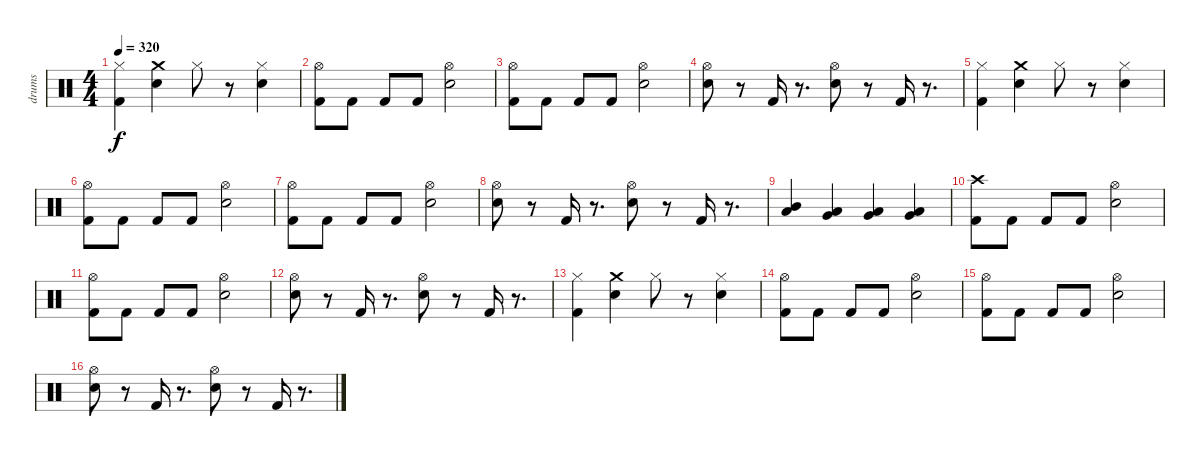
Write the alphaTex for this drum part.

\track ("drums" "drums") {instrument percussion}
\staff {score}
\articulation defaults
\ts (4 4)
\tempo 320
\clef neutral
\ks c
("Hi-Hat (closed)" "Kick (hit) 2").4{dy f} ("Snare (hit) 2" "Crash medium (hit)").4 "Hi-Hat (closed)".8 r.8 ("Hi-Hat (closed)" "Snare (hit) 2").4 |
("Hi-Hat (open)" "Kick (hit) 2").8 "Kick (hit) 2".8 "Kick (hit) 2".8 "Kick (hit) 2".8 ("Hi-Hat (open)" "Snare (hit) 2").2 |
("Hi-Hat (open)" "Kick (hit) 2").8 "Kick (hit) 2".8 "Kick (hit) 2".8 "Kick (hit) 2".8 ("Hi-Hat (open)" "Snare (hit) 2").2 |
("Hi-Hat (open)" "Snare (hit) 2").8 r.8 "Kick (hit) 2".16 r.8{d} ("Hi-Hat (open)" "Snare (hit) 2").8 r.8 "Kick (hit) 2".16 r.8{d} |
("Hi-Hat (closed)" "Kick (hit) 2").4 ("Snare (hit) 2" "Crash medium (hit)").4 "Hi-Hat (closed)".8 r.8 ("Hi-Hat (closed)" "Snare (hit) 2").4 |
("Hi-Hat (open)" "Kick (hit) 2").8 "Kick (hit) 2".8 "Kick (hit) 2".8 "Kick (hit) 2".8 ("Hi-Hat (open)" "Snare (hit) 2").2 |
("Hi-Hat (open)" "Kick (hit) 2").8 "Kick (hit) 2".8 "Kick (hit) 2".8 "Kick (hit) 2".8 ("Hi-Hat (open)" "Snare (hit) 2").2 |
("Hi-Hat (open)" "Snare (hit) 2").8 r.8 "Kick (hit) 2".16 r.8{d} ("Hi-Hat (open)" "Snare (hit) 2").8 r.8 "Kick (hit) 2".16 r.8{d} |
("Mid Tom (hit)" "Low Tom (hit)").4 ("Low Tom (hit)" "Very Low Tom (hit)").4 ("Very Low Tom (hit)" "Low Floor Tom (hit)").4 ("Very Low Tom (hit)" "Low Floor Tom (hit)").4 |
("Crash high (hit)" "Kick (hit) 2").8 "Kick (hit) 2".8 "Kick (hit) 2".8 "Kick (hit) 2".8 ("Hi-Hat (open)" "Snare (hit) 2").2 |
("Hi-Hat (open)" "Kick (hit) 2").8 "Kick (hit) 2".8 "Kick (hit) 2".8 "Kick (hit) 2".8 ("Hi-Hat (open)" "Snare (hit) 2").2 |
("Hi-Hat (open)" "Snare (hit) 2").8 r.8 "Kick (hit) 2".16 r.8{d} ("Hi-Hat (open)" "Snare (hit) 2").8 r.8 "Kick (hit) 2".16 r.8{d} |
("Hi-Hat (closed)" "Kick (hit) 2").4 ("Snare (hit) 2" "Crash medium (hit)").4 "Hi-Hat (closed)".8 r.8 ("Hi-Hat (closed)" "Snare (hit) 2").4 |
("Hi-Hat (open)" "Kick (hit) 2").8 "Kick (hit) 2".8 "Kick (hit) 2".8 "Kick (hit) 2".8 ("Hi-Hat (open)" "Snare (hit) 2").2 |
("Hi-Hat (open)" "Kick (hit) 2").8 "Kick (hit) 2".8 "Kick (hit) 2".8 "Kick (hit) 2".8 ("Hi-Hat (open)" "Snare (hit) 2").2 |
("Hi-Hat (open)" "Snare (hit) 2").8 r.8 "Kick (hit) 2".16 r.8{d} ("Hi-Hat (open)" "Snare (hit) 2").8 r.8 "Kick (hit) 2".16 r.8{d}
